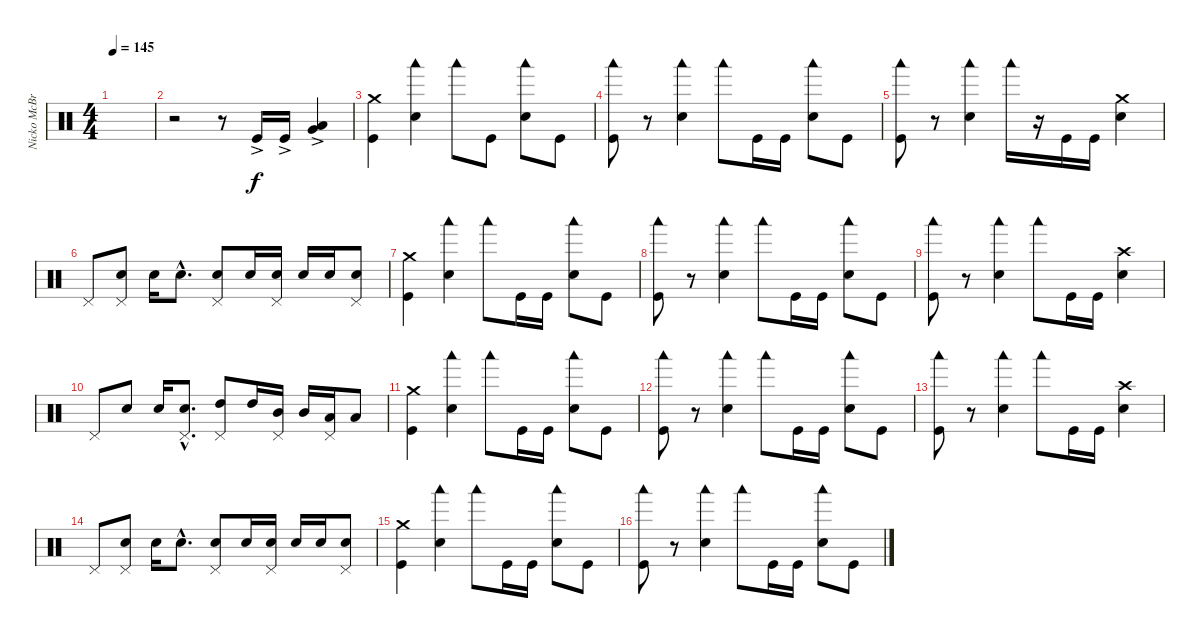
\track ("Nicko McBrain" "Nicko McBr") {instrument percussion}
\staff {score}
\articulation defaults
\ts (4 4)
\tempo 145
\clef neutral
\ks c
|
r.2 r.8 "Kick (hit)"{ac}.16 "Kick (hit)"{ac}.16 ("Very Low Tom (hit)"{ac} "Low Tom (hit)").4 |
("Crash medium (hit)" "Kick (hit)").4{dy f} ("Woodblock low (hit)" "Electric Snare (hit)").4 "Woodblock low (hit)".8 "Kick (hit)".8 ("Woodblock low (hit)" "Electric Snare (hit)").8 "Kick (hit)".8 |
("Woodblock low (hit)" "Kick (hit)").8 r.8 ("Woodblock low (hit)" "Electric Snare (hit)").4 "Woodblock low (hit)".8 "Kick (hit)".16 "Kick (hit)".16 ("Woodblock low (hit)" "Electric Snare (hit)").8 "Kick (hit)".8 |
("Woodblock low (hit)" "Kick (hit)").8 r.8 ("Woodblock low (hit)" "Electric Snare (hit)").4 "Woodblock low (hit)".16 r.16 "Kick (hit)".16 "Kick (hit)".16 ("Crash medium (hit)" "Electric Snare (hit)").4 |
"Pedal Hi-Hat (hit)".8 ("Pedal Hi-Hat (hit)" "Electric Snare (hit)").8 "Electric Snare (hit)".16 "Electric Snare (hit)"{hac}.8{d} ("Pedal Hi-Hat (hit)" "Electric Snare (hit)").8 "Electric Snare (hit)".16 ("Pedal Hi-Hat (hit)" "Electric Snare (hit)").16 "Electric Snare (hit)".16 "Electric Snare (hit)".16 ("Pedal Hi-Hat (hit)" "Electric Snare (hit)").8 |
("Crash medium (hit)" "Kick (hit)").4 ("Woodblock low (hit)" "Electric Snare (hit)").4 "Woodblock low (hit)".8 "Kick (hit)".16 "Kick (hit)".16 ("Woodblock low (hit)" "Electric Snare (hit)").8 "Kick (hit)".8 |
("Woodblock low (hit)" "Kick (hit)").8 r.8 ("Woodblock low (hit)" "Electric Snare (hit)").4 "Woodblock low (hit)".8 "Kick (hit)".16 "Kick (hit)".16 ("Woodblock low (hit)" "Electric Snare (hit)").8 "Kick (hit)".8 |
("Woodblock low (hit)" "Kick (hit)").8 r.8 ("Woodblock low (hit)" "Electric Snare (hit)").4 "Woodblock low (hit)".8 "Kick (hit)".16 "Kick (hit)".16 ("Crash high (hit)" "Electric Snare (hit)").4 |
"Pedal Hi-Hat (hit)".8 "Electric Snare (hit)".8 "Electric Snare (hit)".16 ("Pedal Hi-Hat (hit)"{hac} "Electric Snare (hit)"{hac}).8{d} ("Pedal Hi-Hat (hit)" "High Tom (hit)").8 "High Tom (hit)".16 ("Pedal Hi-Hat (hit)" "Mid Tom (hit)").16 "Mid Tom (hit)".16 ("Pedal Hi-Hat (hit)" "Low Tom (hit)").16 "Low Tom (hit)".8 |
("Crash medium (hit)" "Kick (hit)").4 ("Woodblock low (hit)" "Electric Snare (hit)").4 "Woodblock low (hit)".8 "Kick (hit)".16 "Kick (hit)".16 ("Woodblock low (hit)" "Electric Snare (hit)").8 "Kick (hit)".8 |
("Woodblock low (hit)" "Kick (hit)").8 r.8 ("Woodblock low (hit)" "Electric Snare (hit)").4 "Woodblock low (hit)".8 "Kick (hit)".16 "Kick (hit)".16 ("Woodblock low (hit)" "Electric Snare (hit)").8 "Kick (hit)".8 |
("Woodblock low (hit)" "Kick (hit)").8 r.8 ("Woodblock low (hit)" "Electric Snare (hit)").4 "Woodblock low (hit)".8 "Kick (hit)".16 "Kick (hit)".16 ("Crash high (hit)" "Electric Snare (hit)").4 |
"Pedal Hi-Hat (hit)".8 ("Pedal Hi-Hat (hit)" "Electric Snare (hit)").8 "Electric Snare (hit)".16 "Electric Snare (hit)"{hac}.8{d} ("Pedal Hi-Hat (hit)" "Electric Snare (hit)").8 "Electric Snare (hit)".16 ("Pedal Hi-Hat (hit)" "Electric Snare (hit)").16 "Electric Snare (hit)".16 "Electric Snare (hit)".16 ("Pedal Hi-Hat (hit)" "Electric Snare (hit)").8 |
("Crash medium (hit)" "Kick (hit)").4 ("Woodblock low (hit)" "Electric Snare (hit)").4 "Woodblock low (hit)".8 "Kick (hit)".16 "Kick (hit)".16 ("Woodblock low (hit)" "Electric Snare (hit)").8 "Kick (hit)".8 |
("Woodblock low (hit)" "Kick (hit)").8 r.8 ("Woodblock low (hit)" "Electric Snare (hit)").4 "Woodblock low (hit)".8 "Kick (hit)".16 "Kick (hit)".16 ("Woodblock low (hit)" "Electric Snare (hit)").8 "Kick (hit)".8
